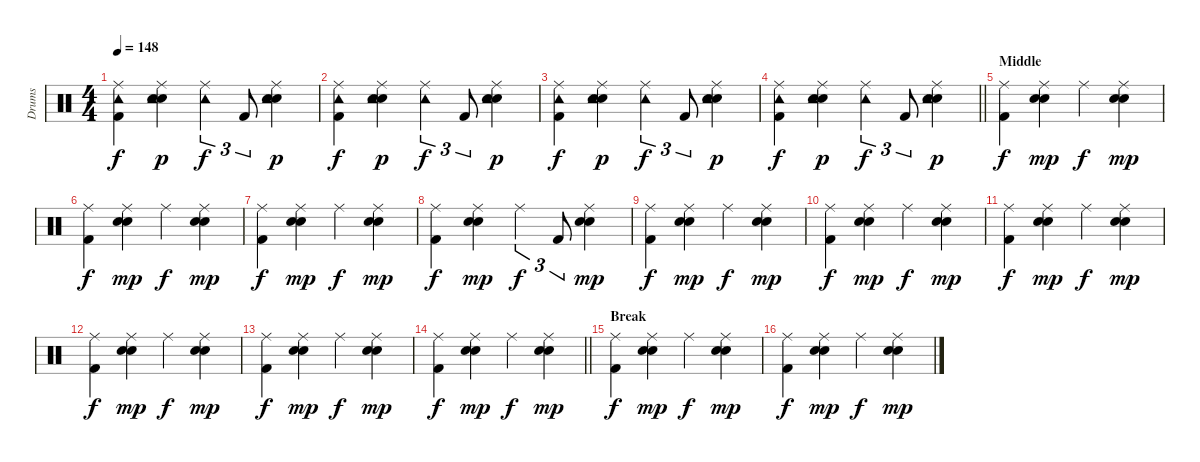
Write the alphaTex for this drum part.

\track ("Drums" "Drums") {instrument percussion}
\staff {score}
\articulation defaults
\ts (4 4)
\tempo 148
\clef neutral
\ks c
("Ride (middle)" "Tambourine (hit)" "Kick (hit) 2").4{dy f} ("Ride (middle)" "Hand Clap (hit)" "Tambourine (hit)" "Electric Snare (hit)").4{dy p} ("Ride (middle)" "Tambourine (hit)").4{tu (3 2) dy f} "Kick (hit) 2".8{tu (3 2)} ("Ride (middle)" "Hand Clap (hit)" "Tambourine (hit)" "Electric Snare (hit)").4{dy p} |
("Ride (middle)" "Tambourine (hit)" "Kick (hit) 2").4{dy f} ("Ride (middle)" "Hand Clap (hit)" "Tambourine (hit)" "Electric Snare (hit)").4{dy p} ("Ride (middle)" "Tambourine (hit)").4{tu (3 2) dy f} "Kick (hit) 2".8{tu (3 2)} ("Ride (middle)" "Hand Clap (hit)" "Tambourine (hit)" "Electric Snare (hit)").4{dy p} |
("Ride (middle)" "Tambourine (hit)" "Kick (hit) 2").4{dy f} ("Ride (middle)" "Hand Clap (hit)" "Tambourine (hit)" "Electric Snare (hit)").4{dy p} ("Ride (middle)" "Tambourine (hit)").4{tu (3 2) dy f} "Kick (hit) 2".8{tu (3 2)} ("Ride (middle)" "Hand Clap (hit)" "Tambourine (hit)" "Electric Snare (hit)").4{dy p} |
\barLineRight lightlight
("Ride (middle)" "Tambourine (hit)" "Kick (hit) 2").4{dy f} ("Ride (middle)" "Hand Clap (hit)" "Tambourine (hit)" "Electric Snare (hit)").4{dy p} ("Ride (middle)" "Tambourine (hit)").4{tu (3 2) dy f} "Kick (hit) 2".8{tu (3 2)} ("Ride (middle)" "Hand Clap (hit)" "Tambourine (hit)" "Electric Snare (hit)").4{dy p} |
\section ("" "Middle")
("Ride (middle)" "Kick (hit) 2").4{dy f} ("Ride (middle)" "Hand Clap (hit)" "Electric Snare (hit)").4{dy mp} "Ride (middle)".4{dy f} ("Ride (middle)" "Hand Clap (hit)" "Electric Snare (hit)").4{dy mp} |
("Ride (middle)" "Kick (hit) 2").4{dy f} ("Ride (middle)" "Hand Clap (hit)" "Electric Snare (hit)").4{dy mp} "Ride (middle)".4{dy f} ("Ride (middle)" "Hand Clap (hit)" "Electric Snare (hit)").4{dy mp} |
("Ride (middle)" "Kick (hit) 2").4{dy f} ("Ride (middle)" "Hand Clap (hit)" "Electric Snare (hit)").4{dy mp} "Ride (middle)".4{dy f} ("Ride (middle)" "Hand Clap (hit)" "Electric Snare (hit)").4{dy mp} |
("Ride (middle)" "Kick (hit) 2").4{dy f} ("Ride (middle)" "Hand Clap (hit)" "Electric Snare (hit)").4{dy mp} "Ride (middle)".4{tu (3 2) dy f} "Kick (hit) 2".8{tu (3 2)} ("Ride (middle)" "Hand Clap (hit)" "Electric Snare (hit)").4{dy mp} |
("Ride (middle)" "Kick (hit) 2").4{dy f} ("Ride (middle)" "Hand Clap (hit)" "Electric Snare (hit)").4{dy mp} "Ride (middle)".4{dy f} ("Ride (middle)" "Hand Clap (hit)" "Electric Snare (hit)").4{dy mp} |
("Ride (middle)" "Kick (hit) 2").4{dy f} ("Ride (middle)" "Hand Clap (hit)" "Electric Snare (hit)").4{dy mp} "Ride (middle)".4{dy f} ("Ride (middle)" "Hand Clap (hit)" "Electric Snare (hit)").4{dy mp} |
("Ride (middle)" "Kick (hit) 2").4{dy f} ("Ride (middle)" "Hand Clap (hit)" "Electric Snare (hit)").4{dy mp} "Ride (middle)".4{dy f} ("Ride (middle)" "Hand Clap (hit)" "Electric Snare (hit)").4{dy mp} |
("Ride (middle)" "Kick (hit) 2").4{dy f} ("Ride (middle)" "Hand Clap (hit)" "Electric Snare (hit)").4{dy mp} "Ride (middle)".4{dy f} ("Ride (middle)" "Hand Clap (hit)" "Electric Snare (hit)").4{dy mp} |
("Ride (middle)" "Kick (hit) 2").4{dy f} ("Ride (middle)" "Hand Clap (hit)" "Electric Snare (hit)").4{dy mp} "Ride (middle)".4{dy f} ("Ride (middle)" "Hand Clap (hit)" "Electric Snare (hit)").4{dy mp} |
\barLineRight lightlight
("Ride (middle)" "Kick (hit) 2").4{dy f} ("Ride (middle)" "Hand Clap (hit)" "Electric Snare (hit)").4{dy mp} "Ride (middle)".4{dy f} ("Ride (middle)" "Hand Clap (hit)" "Electric Snare (hit)").4{dy mp} |
\section ("" "Break")
("Ride (middle)" "Kick (hit) 2").4{dy f} ("Ride (middle)" "Hand Clap (hit)" "Electric Snare (hit)").4{dy mp} "Ride (middle)".4{dy f} ("Ride (middle)" "Hand Clap (hit)" "Electric Snare (hit)").4{dy mp} |
("Ride (middle)" "Kick (hit) 2").4{dy f} ("Ride (middle)" "Hand Clap (hit)" "Electric Snare (hit)").4{dy mp} "Ride (middle)".4{dy f} ("Ride (middle)" "Hand Clap (hit)" "Electric Snare (hit)").4{dy mp}
